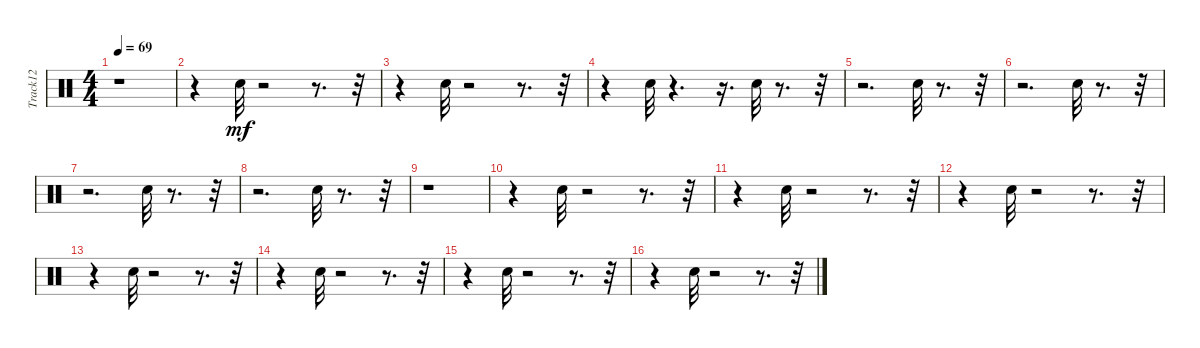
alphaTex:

\track ("Track12" "Track12") {instrument percussion}
\staff {score}
\articulation defaults
\ts (4 4)
\tempo 69
\clef neutral
\ks c
r.1{dy mf} |
r.4 "Hand Clap (hit)".32 r.2 r.8{d} r.32 |
r.4 "Hand Clap (hit)".32 r.2 r.8{d} r.32 |
r.4 "Hand Clap (hit)".32 r.4{d} r.16{d} "Hand Clap (hit)".32 r.8{d} r.32 |
r.2{d} "Hand Clap (hit)".32 r.8{d} r.32 |
r.2{d} "Hand Clap (hit)".32 r.8{d} r.32 |
r.2{d} "Hand Clap (hit)".32 r.8{d} r.32 |
r.2{d} "Hand Clap (hit)".32 r.8{d} r.32 |
r.1 |
r.4 "Hand Clap (hit)".32 r.2 r.8{d} r.32 |
r.4 "Hand Clap (hit)".32 r.2 r.8{d} r.32 |
r.4 "Hand Clap (hit)".32 r.2 r.8{d} r.32 |
r.4 "Hand Clap (hit)".32 r.2 r.8{d} r.32 |
r.4 "Hand Clap (hit)".32 r.2 r.8{d} r.32 |
r.4 "Hand Clap (hit)".32 r.2 r.8{d} r.32 |
r.4 "Hand Clap (hit)".32 r.2 r.8{d} r.32
